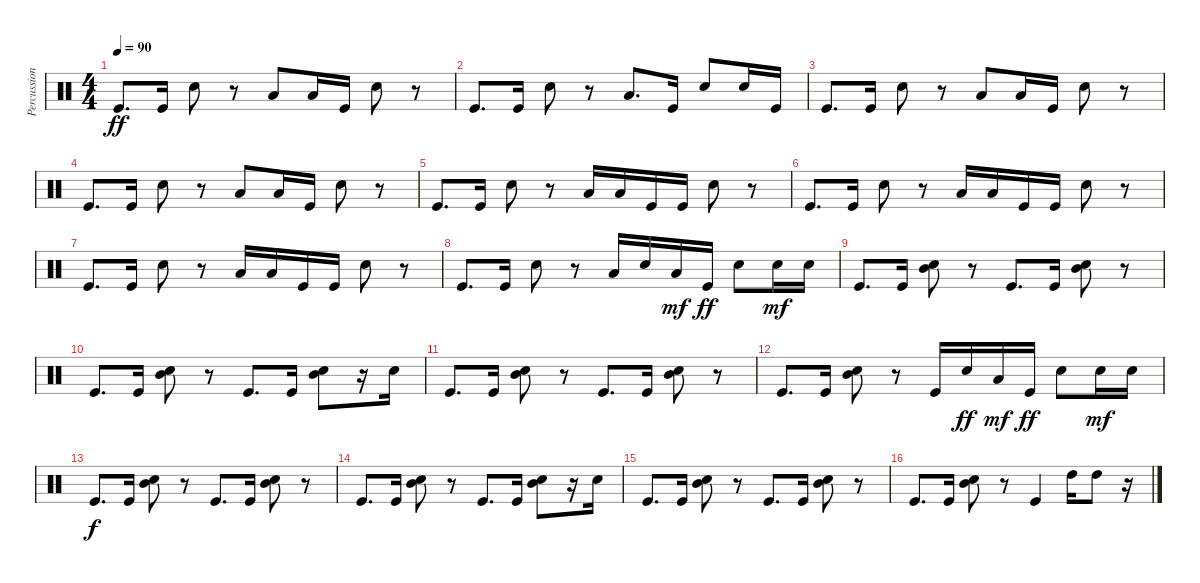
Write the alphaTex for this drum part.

\track ("Percussion" "Percussion") {instrument percussion}
\staff {score}
\articulation defaults
\ts (4 4)
\tempo 90
\clef neutral
\ks c "Kick (hit)".8{d dy ff} "Kick (hit)".16 "Snare (hit) 2".8
r.8 "Low Floor Tom (hit)".8 "Low Floor Tom (hit)".16 "Kick (hit)".16 "Snare (hit) 2".8 r.8 |
"Kick (hit)".8{d} "Kick (hit)".16 "Snare (hit) 2".8 r.8 "Low Floor Tom (hit)".8{d} "Kick (hit)".16 "Snare (hit) 2".8 "Snare (hit) 2".16 "Kick (hit)".16 |
"Kick (hit)".8{d} "Kick (hit)".16 "Snare (hit) 2".8 r.8 "Low Floor Tom (hit)".8 "Low Floor Tom (hit)".16 "Kick (hit)".16 "Snare (hit) 2".8 r.8 |
"Kick (hit)".8{d} "Kick (hit)".16 "Snare (hit) 2".8 r.8 "Low Floor Tom (hit)".8 "Low Floor Tom (hit)".16 "Kick (hit)".16 "Snare (hit) 2".8 r.8 |
"Kick (hit)".8{d} "Kick (hit)".16 "Snare (hit) 2".8 r.8 "Low Floor Tom (hit)".16 "Low Floor Tom (hit)".16 "Kick (hit)".16 "Kick (hit)".16 "Snare (hit) 2".8 r.8 |
"Kick (hit)".8{d} "Kick (hit)".16 "Snare (hit) 2".8 r.8 "Low Floor Tom (hit)".16 "Low Floor Tom (hit)".16 "Kick (hit)".16 "Kick (hit)".16 "Snare (hit) 2".8 r.8 |
"Kick (hit)".8{d} "Kick (hit)".16 "Snare (hit) 2".8 r.8 "Low Floor Tom (hit)".16 "Low Floor Tom (hit)".16 "Kick (hit)".16 "Kick (hit)".16 "Snare (hit) 2".8 r.8 |
"Kick (hit)".8{d} "Kick (hit)".16 "Snare (hit) 2".8 r.8 "Low Floor Tom (hit)".16 "Snare (hit) 2".16 "Low Floor Tom (hit)".16{dy mf} "Kick (hit)".16{dy ff} "Snare (hit) 2".8 "Snare (hit) 2".16{dy mf} "Snare (hit) 2".16 |
"Kick (hit)".8{d} "Kick (hit)".16 ("Mid Tom (hit)" "Snare (hit) 2").8 r.8 "Kick (hit)".8{d} "Kick (hit)".16 ("Mid Tom (hit)" "Snare (hit) 2").8 r.8 |
"Kick (hit)".8{d} "Kick (hit)".16 ("Mid Tom (hit)" "Snare (hit) 2").8 r.8 "Kick (hit)".8{d} "Kick (hit)".16 ("Mid Tom (hit)" "Snare (hit) 2").8 r.16 "Snare (hit) 2".16 |
"Kick (hit)".8{d} "Kick (hit)".16 ("Mid Tom (hit)" "Snare (hit) 2").8 r.8 "Kick (hit)".8{d} "Kick (hit)".16 ("Mid Tom (hit)" "Snare (hit) 2").8 r.8 |
"Kick (hit)".8{d} "Kick (hit)".16 ("Mid Tom (hit)" "Snare (hit) 2").8 r.8 "Kick (hit)".16 "Snare (hit) 2".16{dy ff} "Low Floor Tom (hit)".16{dy mf} "Kick (hit)".16{dy ff} "Snare (hit) 2".8 "Snare (hit) 2".16{dy mf} "Snare (hit) 2".16 |
"Kick (hit)".8{d dy f} "Kick (hit)".16 ("Mid Tom (hit)" "Snare (hit) 2").8 r.8 "Kick (hit)".8{d} "Kick (hit)".16 ("Mid Tom (hit)" "Snare (hit) 2").8 r.8 |
"Kick (hit)".8{d} "Kick (hit)".16 ("Mid Tom (hit)" "Snare (hit) 2").8 r.8 "Kick (hit)".8{d} "Kick (hit)".16 ("Mid Tom (hit)" "Snare (hit) 2").8 r.16 "Snare (hit) 2".16 |
"Kick (hit)".8{d} "Kick (hit)".16 ("Mid Tom (hit)" "Snare (hit) 2").8 r.8 "Kick (hit)".8{d} "Kick (hit)".16 ("Mid Tom (hit)" "Snare (hit) 2").8 r.8 |
"Kick (hit)".8{d} "Kick (hit)".16 ("Mid Tom (hit)" "Snare (hit) 2").8 r.8 "Kick (hit)".4 "High Tom (hit)".16 "High Tom (hit)".8 r.16
